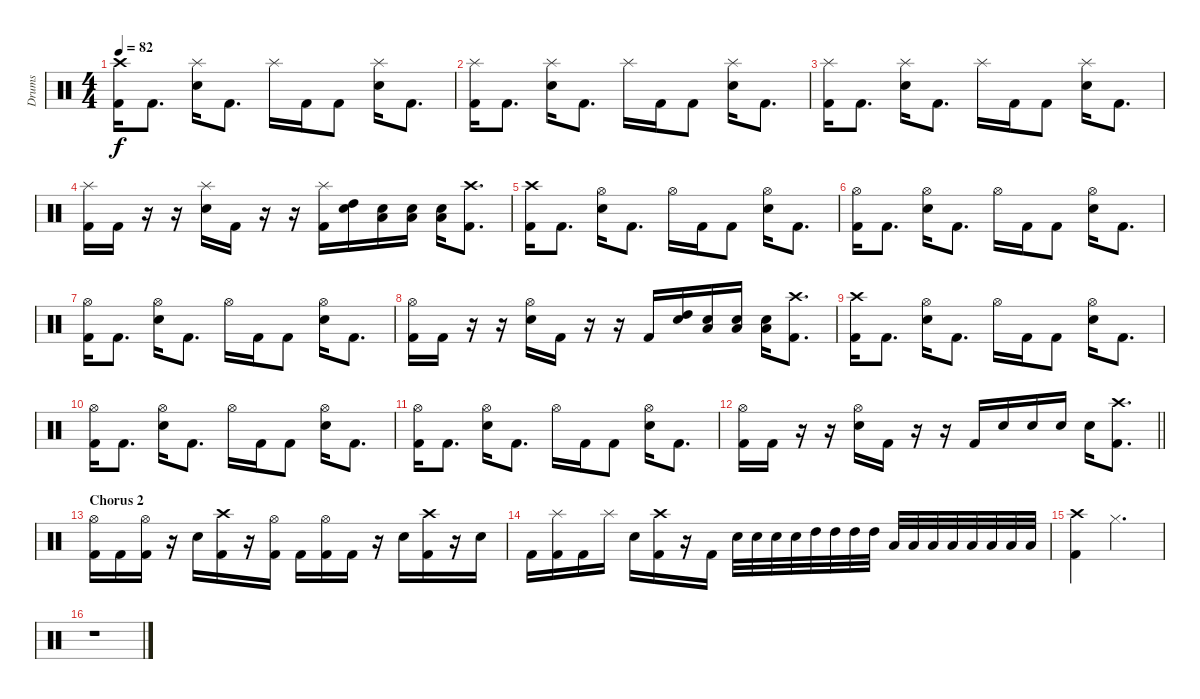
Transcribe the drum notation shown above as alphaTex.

\track ("Drums" "Drums") {instrument percussion}
\staff {score}
\articulation defaults
\ts (4 4)
\tempo 82
\clef neutral
\ks c
("Crash high (hit)" "Kick (hit) 2").16{dy f} "Kick (hit) 2".8{d} ("Splash (hit)" "Electric Snare (hit)").16 "Kick (hit) 2".8{d} "Splash (hit)".16 "Kick (hit) 2".16 "Kick (hit) 2".8 ("Splash (hit)" "Electric Snare (hit)").16 "Kick (hit) 2".8{d} |
("Splash (hit)" "Kick (hit) 2").16 "Kick (hit) 2".8{d} ("Splash (hit)" "Electric Snare (hit)").16 "Kick (hit) 2".8{d} "Splash (hit)".16 "Kick (hit) 2".16 "Kick (hit) 2".8 ("Splash (hit)" "Electric Snare (hit)").16 "Kick (hit) 2".8{d} |
("Splash (hit)" "Kick (hit) 2").16 "Kick (hit) 2".8{d} ("Splash (hit)" "Electric Snare (hit)").16 "Kick (hit) 2".8{d} "Splash (hit)".16 "Kick (hit) 2".16 "Kick (hit) 2".8 ("Splash (hit)" "Electric Snare (hit)").16 "Kick (hit) 2".8{d} |
("Splash (hit)" "Kick (hit) 2").16 "Kick (hit) 2".16 r.16 r.16 ("Splash (hit)" "Electric Snare (hit)").16 "Kick (hit) 2".16 r.16 r.16 ("Splash (hit)" "Kick (hit) 2").16 ("High Tom (hit)" "Electric Snare (hit)").16 ("Electric Snare (hit)" "Low Floor Tom (hit)").16 ("Electric Snare (hit)" "Low Floor Tom (hit)").16 ("Electric Snare (hit)" "Low Floor Tom (hit)").16 ("Crash high (hit)" "Kick (hit) 2").8{d} |
("Crash high (hit)" "Kick (hit) 2").16 "Kick (hit) 2".8{d} ("Hi-Hat (open)" "Electric Snare (hit)").16 "Kick (hit) 2".8{d} "Hi-Hat (open)".16 "Kick (hit) 2".16 "Kick (hit) 2".8 ("Hi-Hat (open)" "Electric Snare (hit)").16 "Kick (hit) 2".8{d} |
("Hi-Hat (open)" "Kick (hit) 2").16 "Kick (hit) 2".8{d} ("Hi-Hat (open)" "Electric Snare (hit)").16 "Kick (hit) 2".8{d} "Hi-Hat (open)".16 "Kick (hit) 2".16 "Kick (hit) 2".8 ("Hi-Hat (open)" "Electric Snare (hit)").16 "Kick (hit) 2".8{d} |
("Hi-Hat (open)" "Kick (hit) 2").16 "Kick (hit) 2".8{d} ("Hi-Hat (open)" "Electric Snare (hit)").16 "Kick (hit) 2".8{d} "Hi-Hat (open)".16 "Kick (hit) 2".16 "Kick (hit) 2".8 ("Hi-Hat (open)" "Electric Snare (hit)").16 "Kick (hit) 2".8{d} |
("Hi-Hat (open)" "Kick (hit) 2").16 "Kick (hit) 2".16 r.16 r.16 ("Hi-Hat (open)" "Electric Snare (hit)").16 "Kick (hit) 2".16 r.16 r.16 "Kick (hit) 2".16 ("High Tom (hit)" "Electric Snare (hit)").16 ("Electric Snare (hit)" "Low Floor Tom (hit)").16 ("Electric Snare (hit)" "Low Floor Tom (hit)").16 ("Electric Snare (hit)" "Low Floor Tom (hit)").16 ("Crash high (hit)" "Kick (hit) 2").8{d} |
("Crash high (hit)" "Kick (hit) 2").16 "Kick (hit) 2".8{d} ("Hi-Hat (open)" "Electric Snare (hit)").16 "Kick (hit) 2".8{d} "Hi-Hat (open)".16 "Kick (hit) 2".16 "Kick (hit) 2".8 ("Hi-Hat (open)" "Electric Snare (hit)").16 "Kick (hit) 2".8{d} |
("Hi-Hat (open)" "Kick (hit) 2").16 "Kick (hit) 2".8{d} ("Hi-Hat (open)" "Electric Snare (hit)").16 "Kick (hit) 2".8{d} "Hi-Hat (open)".16 "Kick (hit) 2".16 "Kick (hit) 2".8 ("Hi-Hat (open)" "Electric Snare (hit)").16 "Kick (hit) 2".8{d} |
("Hi-Hat (open)" "Kick (hit) 2").16 "Kick (hit) 2".8{d} ("Hi-Hat (open)" "Electric Snare (hit)").16 "Kick (hit) 2".8{d} "Hi-Hat (open)".16 "Kick (hit) 2".16 "Kick (hit) 2".8 ("Hi-Hat (open)" "Electric Snare (hit)").16 "Kick (hit) 2".8{d} |
\barLineRight lightlight
("Hi-Hat (open)" "Kick (hit) 2").16 "Kick (hit) 2".16 r.16 r.16 ("Hi-Hat (open)" "Electric Snare (hit)").16 "Kick (hit) 2".16 r.16 r.16 "Kick (hit) 2".16 "Electric Snare (hit)".16 "Electric Snare (hit)".16 "Electric Snare (hit)".16 "Electric Snare (hit)".16 ("Crash high (hit)" "Kick (hit) 2").8{d} |
\section ("" "Chorus 2")
("Hi-Hat (open)" "Kick (hit) 2").16 "Kick (hit) 2".16 ("Hi-Hat (open)" "Kick (hit) 2").16 r.16 "Electric Snare (hit)".16 ("Crash high (hit)" "Kick (hit) 2").16 r.16 ("Hi-Hat (open)" "Kick (hit) 2").16 "Kick (hit) 2".16 ("Hi-Hat (open)" "Kick (hit) 2").16 "Kick (hit) 2".16 r.16 "Electric Snare (hit)".16 ("Crash high (hit)" "Kick (hit) 2").16 r.16 "Electric Snare (hit)".16 |
"Kick (hit) 2".16 ("Splash (hit)" "Kick (hit) 2").16 "Kick (hit) 2".16 "Splash (hit)".16 "Electric Snare (hit)".16 ("Crash high (hit)" "Kick (hit) 2").16 r.16 "Kick (hit) 2".16 "Electric Snare (hit)".32 "Electric Snare (hit)".32 "Electric Snare (hit)".32 "Electric Snare (hit)".32 "High Tom (hit)".32 "High Tom (hit)".32 "High Tom (hit)".32 "High Tom (hit)".32 "Low Floor Tom (hit)".32 "Low Floor Tom (hit)".32 "Low Floor Tom (hit)".32 "Low Floor Tom (hit)".32 "Low Floor Tom (hit)".32 "Low Floor Tom (hit)".32 "Low Floor Tom (hit)".32 "Low Floor Tom (hit)".32 |
("Crash high (hit)" "Kick (hit) 2").4 "Hi-Hat (closed)".2{d} |
r.1
